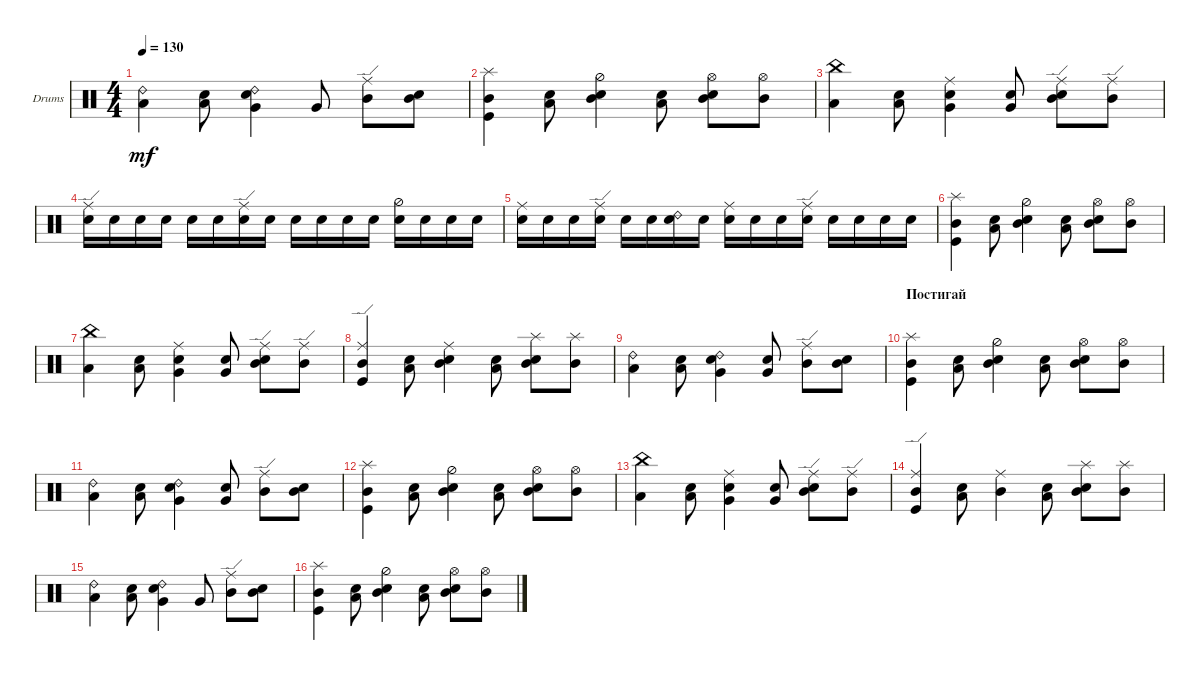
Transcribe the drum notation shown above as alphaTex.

\defaultSystemsLayout 4
\bracketExtendMode groupsimilarinstruments
\firstSystemTrackNameOrientation horizontal
\otherSystemsTrackNameOrientation horizontal
\track ("Drumkit" "Drums") {instrument percussion}
\staff {score}
\articulation defaults
\ts (4 4)
\tempo 130
\clef neutral
\ks c
("Low Tom (hit)" "Ride (bell) 2").4{dy mf} ("Low Tom (hit)" "Snare (hit) 2").8 ("Very Low Tom (hit)" "Snare (hit) 2" "Ride (bell) 2").4 "Very Low Tom (hit)".8 ("Mid Tom (hit)" "Ride (edge)").8 ("Mid Tom (hit)" "Snare (hit) 2").8 |
("Mid Tom (hit)" "Kick (hit)" "Splash (hit)").4 ("Low Tom (hit)" "Snare (hit) 2").8 ("Mid Tom (hit)" "Snare (hit) 2" "Hi-Hat (half)").4 ("Low Tom (hit)" "Snare (hit) 2").8 ("Mid Tom (hit)" "Snare (hit) 2" "Hi-Hat (open)").8 ("Mid Tom (hit)" "Hi-Hat (open)").8 |
("Low Tom (hit)" "China (hit)").4 ("Low Tom (hit)" "Snare (hit) 2").8 ("Very Low Tom (hit)" "Snare (hit) 2" "Ride (middle)").4 ("Very Low Tom (hit)" "Snare (hit) 2").8 ("Mid Tom (hit)" "Snare (hit) 2" "Ride (edge)").8 ("Mid Tom (hit)" "Ride (edge)").8 |
("Snare (hit) 2" "Ride (edge)").16 "Snare (hit) 2".16 "Snare (hit) 2".16 "Snare (hit) 2".16 "Snare (hit) 2".16 "Snare (hit) 2".16 ("Snare (hit) 2" "Ride (edge)").16 "Snare (hit) 2".16 "Snare (hit) 2".16 "Snare (hit) 2".16 "Snare (hit) 2".16 "Snare (hit) 2".16 ("Snare (hit) 2" "Hi-Hat (half)").16 "Snare (hit) 2".16 "Snare (hit) 2".16 "Snare (hit) 2".16 |
("Snare (hit) 2" "Ride (middle)").16 "Snare (hit) 2".16 "Snare (hit) 2".16 ("Snare (hit) 2" "Ride (edge)").16 "Snare (hit) 2".16 "Snare (hit) 2".16 ("Snare (hit) 2" "Ride (bell) 2").16 "Snare (hit) 2".16 ("Snare (hit) 2" "Ride (middle)").16 "Snare (hit) 2".16 "Snare (hit) 2".16 ("Snare (hit) 2" "Ride (edge)").16 "Snare (hit) 2".16 "Snare (hit) 2".16 "Snare (hit) 2".16 "Snare (hit) 2".16 |
("Mid Tom (hit)" "Kick (hit)" "Splash (hit)").4 ("Low Tom (hit)" "Snare (hit) 2").8 ("Mid Tom (hit)" "Snare (hit) 2" "Hi-Hat (half)").4 ("Low Tom (hit)" "Snare (hit) 2").8 ("Mid Tom (hit)" "Snare (hit) 2" "Hi-Hat (open)").8 ("Mid Tom (hit)" "Hi-Hat (open)").8 |
("Low Tom (hit)" "China (hit)").4 ("Low Tom (hit)" "Snare (hit) 2").8 ("Very Low Tom (hit)" "Snare (hit) 2" "Ride (middle)").4 ("Very Low Tom (hit)" "Snare (hit) 2").8 ("Mid Tom (hit)" "Snare (hit) 2" "Ride (edge)").8 ("Mid Tom (hit)" "Ride (edge)").8 |
("Mid Tom (hit)" "Kick (hit)" "Ride (edge)").4 ("Low Tom (hit)" "Snare (hit) 2").8 ("Mid Tom (hit)" "Snare (hit) 2" "Ride (middle)").4 ("Low Tom (hit)" "Snare (hit) 2").8 ("Mid Tom (hit)" "Snare (hit) 2" "Splash (hit)").8 ("Mid Tom (hit)" "Splash (hit)").8 |
("Low Tom (hit)" "Ride (bell) 2").4 ("Low Tom (hit)" "Snare (hit) 2").8 ("Very Low Tom (hit)" "Snare (hit) 2" "Ride (bell) 2").4 ("Very Low Tom (hit)" "Snare (hit) 2").8 ("Mid Tom (hit)" "Ride (edge)").8 ("Mid Tom (hit)" "Snare (hit) 2").8 |
\section ("" "Постигай")
("Mid Tom (hit)" "Kick (hit)" "Splash (hit)").4 ("Low Tom (hit)" "Snare (hit) 2").8 ("Mid Tom (hit)" "Snare (hit) 2" "Hi-Hat (half)").4 ("Low Tom (hit)" "Snare (hit) 2").8 ("Mid Tom (hit)" "Snare (hit) 2" "Hi-Hat (open)").8 ("Mid Tom (hit)" "Hi-Hat (open)").8 |
("Low Tom (hit)" "Ride (bell) 2").4 ("Low Tom (hit)" "Snare (hit) 2").8 ("Very Low Tom (hit)" "Snare (hit) 2" "Ride (bell) 2").4 ("Very Low Tom (hit)" "Snare (hit) 2").8 ("Mid Tom (hit)" "Ride (edge)").8 ("Mid Tom (hit)" "Snare (hit) 2").8 |
("Mid Tom (hit)" "Kick (hit)" "Splash (hit)").4 ("Low Tom (hit)" "Snare (hit) 2").8 ("Mid Tom (hit)" "Snare (hit) 2" "Hi-Hat (half)").4 ("Low Tom (hit)" "Snare (hit) 2").8 ("Mid Tom (hit)" "Snare (hit) 2" "Hi-Hat (open)").8 ("Mid Tom (hit)" "Hi-Hat (open)").8 |
("Low Tom (hit)" "China (hit)").4 ("Low Tom (hit)" "Snare (hit) 2").8 ("Very Low Tom (hit)" "Snare (hit) 2" "Ride (middle)").4 ("Very Low Tom (hit)" "Snare (hit) 2").8 ("Mid Tom (hit)" "Snare (hit) 2" "Ride (edge)").8 ("Mid Tom (hit)" "Ride (edge)").8 |
("Mid Tom (hit)" "Kick (hit)" "Ride (edge)").4 ("Low Tom (hit)" "Snare (hit) 2").8 ("Mid Tom (hit)" "Ride (middle)").4 ("Low Tom (hit)" "Snare (hit) 2").8 ("Mid Tom (hit)" "Snare (hit) 2" "Splash (hit)").8 ("Mid Tom (hit)" "Splash (hit)").8 |
("Low Tom (hit)" "Ride (bell) 2").4 ("Low Tom (hit)" "Snare (hit) 2").8 ("Very Low Tom (hit)" "Snare (hit) 2" "Ride (bell) 2").4 "Very Low Tom (hit)".8 ("Mid Tom (hit)" "Ride (edge)").8 ("Mid Tom (hit)" "Snare (hit) 2").8 |
("Mid Tom (hit)" "Kick (hit)" "Splash (hit)").4 ("Low Tom (hit)" "Snare (hit) 2").8 ("Mid Tom (hit)" "Snare (hit) 2" "Hi-Hat (half)").4 ("Low Tom (hit)" "Snare (hit) 2").8 ("Mid Tom (hit)" "Snare (hit) 2" "Hi-Hat (open)").8 ("Mid Tom (hit)" "Hi-Hat (open)").8
